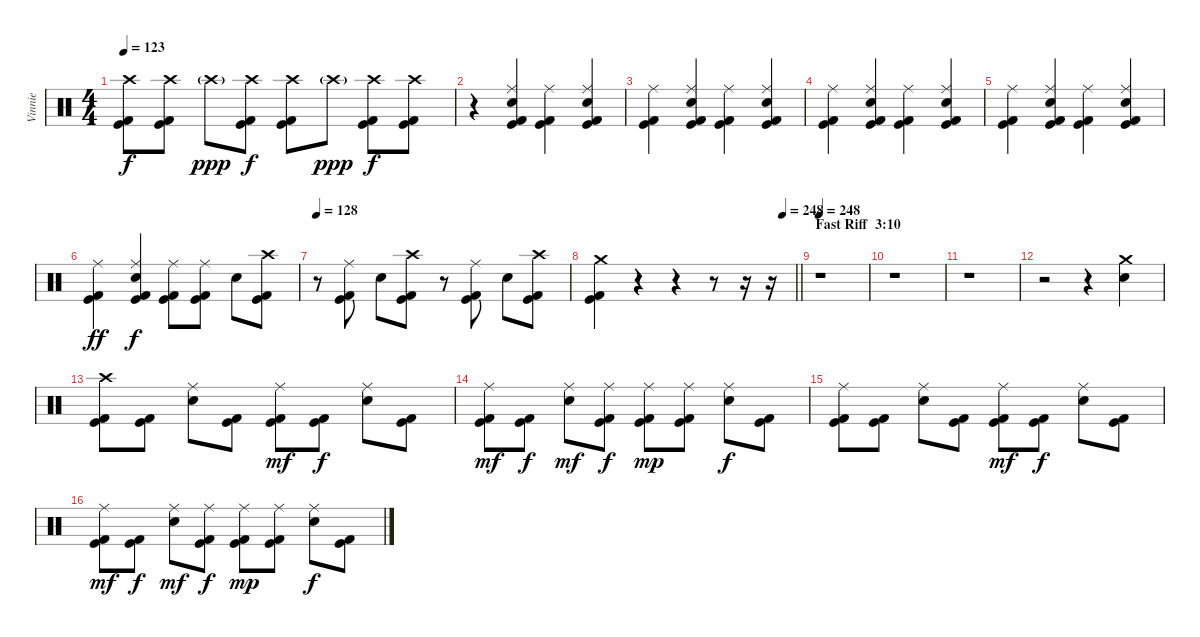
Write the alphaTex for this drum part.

\track ("Vinnie" "Vinnie") {instrument percussion}
\staff {score}
\articulation defaults
\ts (4 4)
\tempo 123
\clef neutral
\ks c
("Crash high (hit)" "Kick (hit)" "Kick (hit) 2").8{dy f} ("Crash high (hit)" "Kick (hit)" "Kick (hit) 2").8 "Crash high (hit)"{g}.8{dy ppp} ("Crash high (hit)" "Kick (hit)" "Kick (hit) 2").8{dy f} ("Crash high (hit)" "Kick (hit)" "Kick (hit) 2").8 "Crash high (hit)"{g}.8{dy ppp} ("Crash high (hit)" "Kick (hit)" "Kick (hit) 2").8{dy f} ("Crash high (hit)" "Kick (hit)" "Kick (hit) 2").8 |
r.4 ("Ride (middle)" "Electric Snare (hit)" "Kick (hit)" "Kick (hit) 2").4 ("Ride (middle)" "Kick (hit)" "Kick (hit) 2").4 ("Ride (middle)" "Electric Snare (hit)" "Kick (hit)" "Kick (hit) 2").4 |
("Ride (middle)" "Kick (hit)" "Kick (hit) 2").4 ("Ride (middle)" "Electric Snare (hit)" "Kick (hit)" "Kick (hit) 2").4 ("Ride (middle)" "Kick (hit)" "Kick (hit) 2").4 ("Ride (middle)" "Electric Snare (hit)" "Kick (hit)" "Kick (hit) 2").4 |
("Ride (middle)" "Kick (hit)" "Kick (hit) 2").4 ("Ride (middle)" "Electric Snare (hit)" "Kick (hit)" "Kick (hit) 2").4 ("Ride (middle)" "Kick (hit)" "Kick (hit) 2").4 ("Ride (middle)" "Electric Snare (hit)" "Kick (hit)" "Kick (hit) 2").4 |
("Ride (middle)" "Kick (hit)" "Kick (hit) 2").4 ("Ride (middle)" "Electric Snare (hit)" "Kick (hit)" "Kick (hit) 2").4 ("Ride (middle)" "Kick (hit)" "Kick (hit) 2").4 ("Ride (middle)" "Electric Snare (hit)" "Kick (hit)" "Kick (hit) 2").4 |
("Ride (middle)" "Kick (hit)" "Kick (hit) 2").4{dy ff} ("Ride (middle)" "Electric Snare (hit)" "Kick (hit)" "Kick (hit) 2").4{dy f} ("Ride (middle)" "Kick (hit)" "Kick (hit) 2").8 ("Ride (middle)" "Kick (hit)" "Kick (hit) 2").8 "Electric Snare (hit)".8 ("Crash high (hit)" "Kick (hit)" "Kick (hit) 2").8 |
\tempo 128
r.8 ("Ride (middle)" "Kick (hit)" "Kick (hit) 2").8 "Electric Snare (hit)".8 ("Crash high (hit)" "Kick (hit)" "Kick (hit) 2").8 r.8 ("Ride (middle)" "Kick (hit)" "Kick (hit) 2").8 "Electric Snare (hit)".8 ("Crash high (hit)" "Kick (hit)" "Kick (hit) 2").8 |
\tempo (248 0.9375)
\barLineRight lightlight
("Crash medium (hit)" "Kick (hit)" "Kick (hit) 2").4 r.4 r.4 r.8 r.16 r.16 |
\section ("" "Fast Riff  3:10")
\tempo 248
r.1 |
r.1 |
r.1 |
r.2 r.4 ("Crash medium (hit)" "Electric Snare (hit)").4 |
("Crash high (hit)" "Kick (hit)" "Kick (hit) 2").8 ("Kick (hit)" "Kick (hit) 2").8 ("Ride (middle)" "Electric Snare (hit)").8 ("Kick (hit)" "Kick (hit) 2").8 ("Ride (middle)" "Kick (hit)" "Kick (hit) 2").8{dy mf} ("Kick (hit)" "Kick (hit) 2").8{dy f} ("Ride (middle)" "Electric Snare (hit)").8 ("Kick (hit)" "Kick (hit) 2").8 |
("Ride (middle)" "Kick (hit)" "Kick (hit) 2").8{dy mf} ("Kick (hit)" "Kick (hit) 2").8{dy f} ("Ride (middle)" "Electric Snare (hit)").8{dy mf} ("Ride (middle)" "Kick (hit)" "Kick (hit) 2").8{dy f} ("Ride (middle)" "Kick (hit)" "Kick (hit) 2").8{dy mp} ("Ride (middle)" "Kick (hit)" "Kick (hit) 2").8 ("Ride (middle)" "Electric Snare (hit)").8{dy f} ("Kick (hit)" "Kick (hit) 2").8 |
("Ride (middle)" "Kick (hit)" "Kick (hit) 2").8 ("Kick (hit)" "Kick (hit) 2").8 ("Ride (middle)" "Electric Snare (hit)").8 ("Kick (hit)" "Kick (hit) 2").8 ("Ride (middle)" "Kick (hit)" "Kick (hit) 2").8{dy mf} ("Kick (hit)" "Kick (hit) 2").8{dy f} ("Ride (middle)" "Electric Snare (hit)").8 ("Kick (hit)" "Kick (hit) 2").8 |
("Ride (middle)" "Kick (hit)" "Kick (hit) 2").8{dy mf} ("Kick (hit)" "Kick (hit) 2").8{dy f} ("Ride (middle)" "Electric Snare (hit)").8{dy mf} ("Ride (middle)" "Kick (hit)" "Kick (hit) 2").8{dy f} ("Ride (middle)" "Kick (hit)" "Kick (hit) 2").8{dy mp} ("Ride (middle)" "Kick (hit)" "Kick (hit) 2").8 ("Ride (middle)" "Electric Snare (hit)").8{dy f} ("Kick (hit)" "Kick (hit) 2").8
